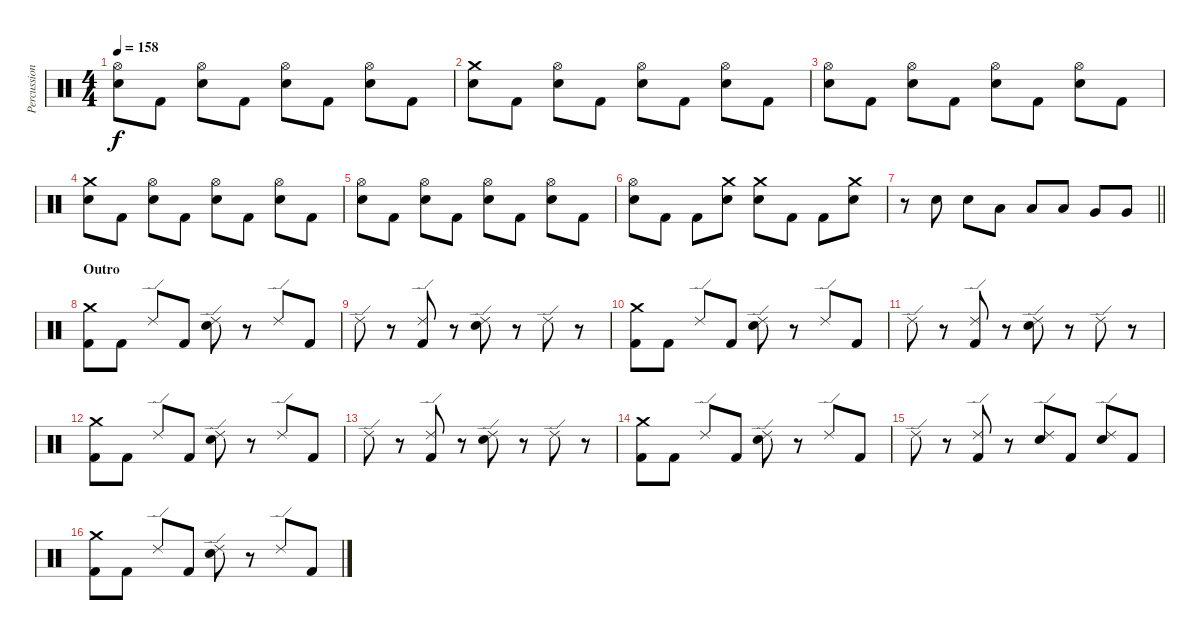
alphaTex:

\track ("Percussion" "Percussion") {instrument percussion}
\staff {score}
\articulation defaults
\ts (4 4)
\tempo 158
\clef neutral
\ks c
("Hi-Hat (open)" "Electric Snare (hit)").8{dy f} "Kick (hit) 2".8 ("Hi-Hat (open)" "Electric Snare (hit)").8 "Kick (hit) 2".8 ("Hi-Hat (open)" "Electric Snare (hit)").8 "Kick (hit) 2".8 ("Hi-Hat (open)" "Electric Snare (hit)").8 "Kick (hit) 2".8 |
("Crash medium (hit)" "Electric Snare (hit)").8 "Kick (hit) 2".8 ("Hi-Hat (open)" "Electric Snare (hit)").8 "Kick (hit) 2".8 ("Hi-Hat (open)" "Electric Snare (hit)").8 "Kick (hit) 2".8 ("Hi-Hat (open)" "Electric Snare (hit)").8 "Kick (hit) 2".8 |
("Hi-Hat (open)" "Electric Snare (hit)").8 "Kick (hit) 2".8 ("Hi-Hat (open)" "Electric Snare (hit)").8 "Kick (hit) 2".8 ("Hi-Hat (open)" "Electric Snare (hit)").8 "Kick (hit) 2".8 ("Hi-Hat (open)" "Electric Snare (hit)").8 "Kick (hit) 2".8 |
("Crash medium (hit)" "Electric Snare (hit)").8 "Kick (hit) 2".8 ("Hi-Hat (open)" "Electric Snare (hit)").8 "Kick (hit) 2".8 ("Hi-Hat (open)" "Electric Snare (hit)").8 "Kick (hit) 2".8 ("Hi-Hat (open)" "Electric Snare (hit)").8 "Kick (hit) 2".8 |
("Hi-Hat (open)" "Electric Snare (hit)").8 "Kick (hit) 2".8 ("Hi-Hat (open)" "Electric Snare (hit)").8 "Kick (hit) 2".8 ("Hi-Hat (open)" "Electric Snare (hit)").8 "Kick (hit) 2".8 ("Hi-Hat (open)" "Electric Snare (hit)").8 "Kick (hit) 2".8 |
("Hi-Hat (open)" "Electric Snare (hit)").8 "Kick (hit) 2".8 "Kick (hit) 2".8 ("Crash medium (hit)" "Electric Snare (hit)").8 ("Crash medium (hit)" "Electric Snare (hit)").8 "Kick (hit) 2".8 "Kick (hit) 2".8 ("Crash medium (hit)" "Electric Snare (hit)").8 |
\barLineRight lightlight
r.8 "Electric Snare (hit)".8 "Electric Snare (hit)".8 "Low Tom (hit)".8 "Low Tom (hit)".8 "Low Tom (hit)".8 "Very Low Tom (hit)".8 "Very Low Tom (hit)".8 |
\section ("" "Outro")
("Crash medium (hit)" "Kick (hit) 2").8 "Kick (hit) 2".8 "Ride (edge) 2".8 "Kick (hit) 2".8 ("Ride (edge) 2" "Electric Snare (hit)").8 r.8 "Ride (edge) 2".8 "Kick (hit) 2".8 |
"Ride (edge) 2".8 r.8 ("Ride (edge) 2" "Kick (hit) 2").8 r.8 ("Ride (edge) 2" "Electric Snare (hit)").8 r.8 "Ride (edge) 2".8 r.8 |
("Crash medium (hit)" "Kick (hit) 2").8 "Kick (hit) 2".8 "Ride (edge) 2".8 "Kick (hit) 2".8 ("Ride (edge) 2" "Electric Snare (hit)").8 r.8 "Ride (edge) 2".8 "Kick (hit) 2".8 |
"Ride (edge) 2".8 r.8 ("Ride (edge) 2" "Kick (hit) 2").8 r.8 ("Ride (edge) 2" "Electric Snare (hit)").8 r.8 "Ride (edge) 2".8 r.8 |
("Crash medium (hit)" "Kick (hit) 2").8 "Kick (hit) 2".8 "Ride (edge) 2".8 "Kick (hit) 2".8 ("Ride (edge) 2" "Electric Snare (hit)").8 r.8 "Ride (edge) 2".8 "Kick (hit) 2".8 |
"Ride (edge) 2".8 r.8 ("Ride (edge) 2" "Kick (hit) 2").8 r.8 ("Ride (edge) 2" "Electric Snare (hit)").8 r.8 "Ride (edge) 2".8 r.8 |
("Crash medium (hit)" "Kick (hit) 2").8 "Kick (hit) 2".8 "Ride (edge) 2".8 "Kick (hit) 2".8 ("Ride (edge) 2" "Electric Snare (hit)").8 r.8 "Ride (edge) 2".8 "Kick (hit) 2".8 |
"Ride (edge) 2".8 r.8 ("Ride (edge) 2" "Kick (hit) 2").8 r.8 ("Ride (edge) 2" "Electric Snare (hit)").8 "Kick (hit) 2".8 ("Ride (edge) 2" "Electric Snare (hit)").8 "Kick (hit) 2".8 |
("Crash medium (hit)" "Kick (hit) 2").8 "Kick (hit) 2".8 "Ride (edge) 2".8 "Kick (hit) 2".8 ("Ride (edge) 2" "Electric Snare (hit)").8 r.8 "Ride (edge) 2".8 "Kick (hit) 2".8
